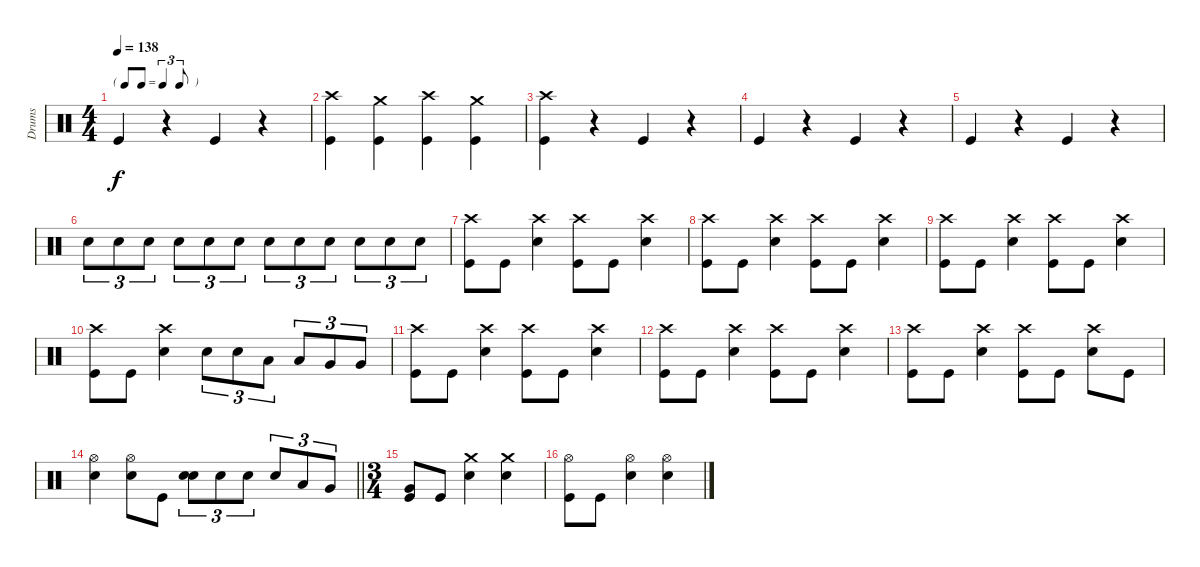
\track ("Drums" "Drums") {instrument percussion}
\staff {score}
\articulation defaults
\ts (4 4)
\tf triplet8th
\tempo 138
\clef neutral
\ks c "Kick (hit)".4{dy f}
r.4 "Kick (hit)".4 r.4 |
("Crash high (hit)" "Kick (hit)").4 ("Crash medium (hit)" "Kick (hit)").4 ("Crash high (hit)" "Kick (hit)").4 ("Crash medium (hit)" "Kick (hit)").4 |
("Crash high (hit)" "Kick (hit)").4 r.4 "Kick (hit)".4 r.4 |
"Kick (hit)".4 r.4 "Kick (hit)".4 r.4 |
"Kick (hit)".4 r.4 "Kick (hit)".4 r.4 |
"Snare (hit) 2".8{tu (3 2)} "Snare (hit) 2".8{tu (3 2)} "Snare (hit) 2".8{tu (3 2)} "Snare (hit) 2".8{tu (3 2)} "Snare (hit) 2".8{tu (3 2)} "Snare (hit) 2".8{tu (3 2)} "Snare (hit) 2".8{tu (3 2)} "Snare (hit) 2".8{tu (3 2)} "Snare (hit) 2".8{tu (3 2)} "Snare (hit) 2".8{tu (3 2)} "Snare (hit) 2".8{tu (3 2)} "Snare (hit) 2".8{tu (3 2)} |
("Crash high (hit)" "Kick (hit)").8 "Kick (hit)".8 ("Crash high (hit)" "Snare (hit) 2").4 ("Crash high (hit)" "Kick (hit)").8 "Kick (hit)".8 ("Crash high (hit)" "Snare (hit) 2").4 |
("Crash high (hit)" "Kick (hit)").8 "Kick (hit)".8 ("Crash high (hit)" "Snare (hit) 2").4 ("Crash high (hit)" "Kick (hit)").8 "Kick (hit)".8 ("Crash high (hit)" "Snare (hit) 2").4 |
("Crash high (hit)" "Kick (hit)").8 "Kick (hit)".8 ("Crash high (hit)" "Snare (hit) 2").4 ("Crash high (hit)" "Kick (hit)").8 "Kick (hit)".8 ("Crash high (hit)" "Snare (hit) 2").4 |
("Crash high (hit)" "Kick (hit)").8 "Kick (hit)".8 ("Crash high (hit)" "Snare (hit) 2").4 "Snare (hit) 2".8{tu (3 2)} "Snare (hit) 2".8{tu (3 2)} "Low Tom (hit)".8{tu (3 2)} "Low Tom (hit)".8{tu (3 2)} "Very Low Tom (hit)".8{tu (3 2)} "Very Low Tom (hit)".8{tu (3 2)} |
("Crash high (hit)" "Kick (hit)").8 "Kick (hit)".8 ("Crash high (hit)" "Snare (hit) 2").4 ("Crash high (hit)" "Kick (hit)").8 "Kick (hit)".8 ("Crash high (hit)" "Snare (hit) 2").4 |
("Crash high (hit)" "Kick (hit)").8 "Kick (hit)".8 ("Crash high (hit)" "Snare (hit) 2").4 ("Crash high (hit)" "Kick (hit)").8 "Kick (hit)".8 ("Crash high (hit)" "Snare (hit) 2").4 |
("Crash high (hit)" "Kick (hit)").8 "Kick (hit)".8 ("Crash high (hit)" "Snare (hit) 2").4 ("Crash high (hit)" "Kick (hit)").8 "Kick (hit)".8 ("Crash high (hit)" "Snare (hit) 2").8 "Kick (hit)".8 |
\barLineRight lightlight
("Hi-Hat (open)" "Snare (hit) 2").4 ("Hi-Hat (open)" "Snare (hit) 2").8 "Kick (hit)".8 ("Snare (hit) 2" "Snare (hit) 2").8{tu (3 2) bd 240} "Snare (hit) 2".8{tu (3 2)} "Snare (hit) 2".8{tu (3 2)} "Snare (hit) 2".8{tu (3 2)} "Low Tom (hit)".8{tu (3 2)} "Very Low Tom (hit)".8{tu (3 2)} |
\ts (3 4)
("Very Low Tom (hit)" "Kick (hit)").8 "Kick (hit)".8 ("Crash medium (hit)" "Snare (hit) 2").4 ("Crash medium (hit)" "Snare (hit) 2").4 |
("Hi-Hat (open)" "Kick (hit)").8 "Kick (hit)".8 ("Hi-Hat (open)" "Snare (hit) 2").4 ("Hi-Hat (open)" "Snare (hit) 2").4
